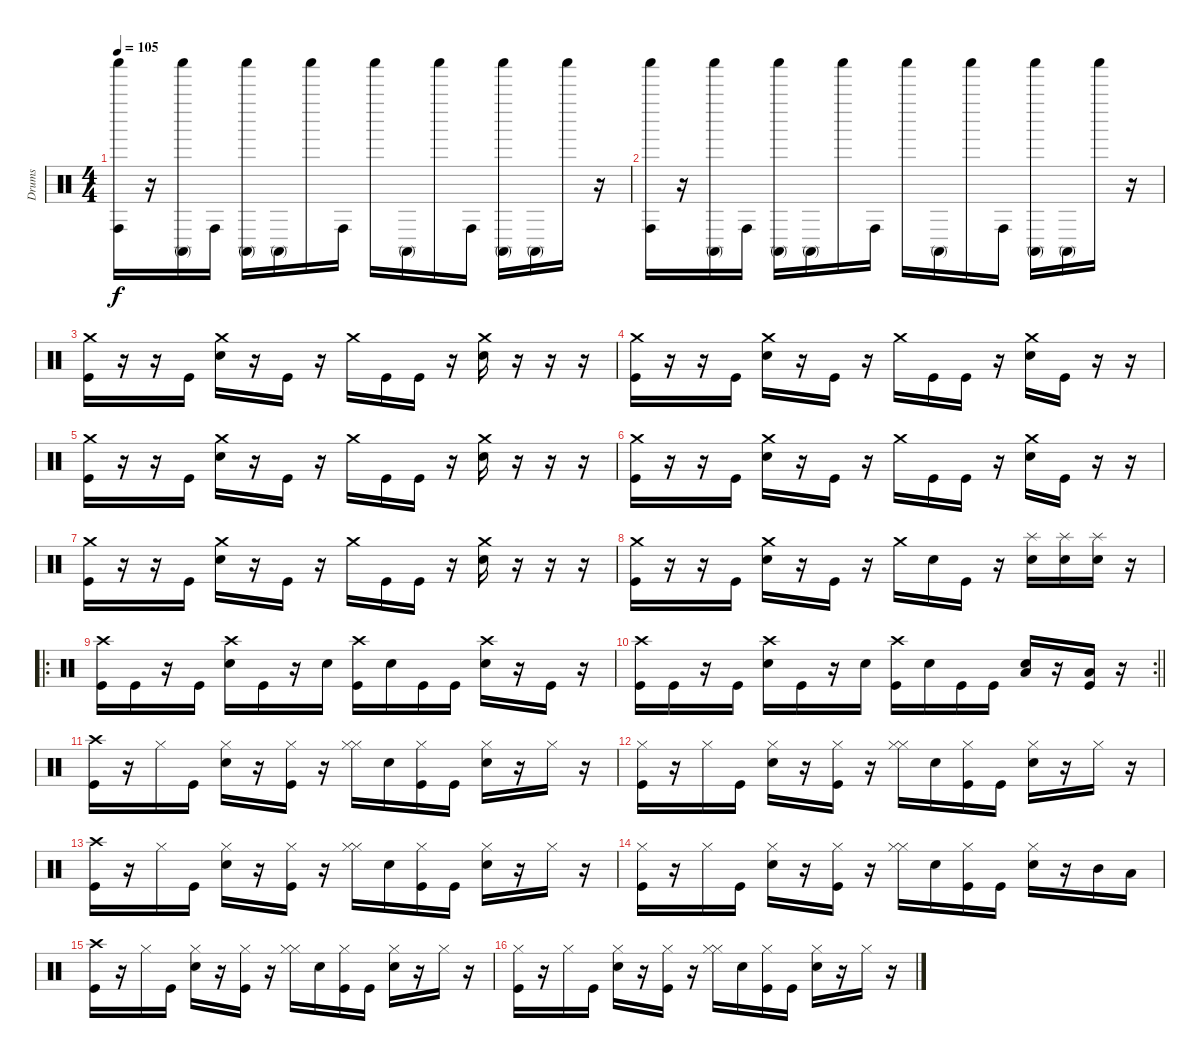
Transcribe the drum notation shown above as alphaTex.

\track ("Drums" "Drums") {instrument percussion}
\staff {score}
\articulation defaults
\ts (4 4)
\tempo 105
\clef neutral
\ks c
("Shaker (hit)" "Conga high (hit)").16{dy f volume 16} r.16 ("Shaker (hit)" "Conga high (mute)").16 "Conga high (hit)".16 ("Shaker (hit)" "Conga high (mute)").16 "Conga high (mute)".16 "Shaker (hit)".16 "Conga high (hit)".16 "Shaker (hit)".16 "Conga high (mute)".16 "Shaker (hit)".16 "Conga high (hit)".16 ("Shaker (hit)" "Conga high (mute)").16 "Conga high (mute)".16 "Shaker (hit)".16 r.16 |
("Shaker (hit)" "Conga high (hit)").16{volume 16} r.16 ("Shaker (hit)" "Conga high (mute)").16 "Conga high (hit)".16 ("Shaker (hit)" "Conga high (mute)").16 "Conga high (mute)".16 "Shaker (hit)".16 "Conga high (hit)".16 "Shaker (hit)".16 "Conga high (mute)".16 "Shaker (hit)".16 "Conga high (hit)".16 ("Shaker (hit)" "Conga high (mute)").16 "Conga high (mute)".16 "Shaker (hit)".16 r.16 |
("Crash medium (hit)" "Kick (hit)").16{volume 13} r.16 r.16 "Kick (hit)".16 ("Crash medium (hit)" "Electric Snare (hit)").16 r.16 "Kick (hit)".16 r.16 "Crash medium (hit)".16 "Kick (hit)".16 "Kick (hit)".16 r.16 ("Crash medium (hit)" "Electric Snare (hit)").16 r.16 r.16 r.16 |
("Crash medium (hit)" "Kick (hit)").16 r.16 r.16 "Kick (hit)".16 ("Crash medium (hit)" "Electric Snare (hit)").16 r.16 "Kick (hit)".16 r.16 "Crash medium (hit)".16 "Kick (hit)".16 "Kick (hit)".16 r.16 ("Crash medium (hit)" "Electric Snare (hit)").16 "Kick (hit)".16 r.16 r.16 |
("Crash medium (hit)" "Kick (hit)").16 r.16 r.16 "Kick (hit)".16 ("Crash medium (hit)" "Electric Snare (hit)").16 r.16 "Kick (hit)".16 r.16 "Crash medium (hit)".16 "Kick (hit)".16 "Kick (hit)".16 r.16 ("Crash medium (hit)" "Electric Snare (hit)").16 r.16 r.16 r.16 |
("Crash medium (hit)" "Kick (hit)").16 r.16 r.16 "Kick (hit)".16 ("Crash medium (hit)" "Electric Snare (hit)").16 r.16 "Kick (hit)".16 r.16 "Crash medium (hit)".16 "Kick (hit)".16 "Kick (hit)".16 r.16 ("Crash medium (hit)" "Electric Snare (hit)").16 "Kick (hit)".16 r.16 r.16 |
("Crash medium (hit)" "Kick (hit)").16 r.16 r.16 "Kick (hit)".16 ("Crash medium (hit)" "Electric Snare (hit)").16 r.16 "Kick (hit)".16 r.16 "Crash medium (hit)".16 "Kick (hit)".16 "Kick (hit)".16 r.16 ("Crash medium (hit)" "Electric Snare (hit)").16 r.16 r.16 r.16 |
("Crash medium (hit)" "Kick (hit)").16 r.16 r.16 "Kick (hit)".16 ("Crash medium (hit)" "Electric Snare (hit)").16 r.16 "Kick (hit)".16 r.16 "Crash medium (hit)".16 "Electric Snare (hit)".16 "Kick (hit)".16 r.16 ("Splash (hit)" "Electric Snare (hit)").16 ("Splash (hit)" "Electric Snare (hit)").16 ("Splash (hit)" "Electric Snare (hit)").16 r.16 |
\ro
("Crash high (hit)" "Kick (hit)").16 "Kick (hit)".16 r.16 "Kick (hit)".16 ("Crash high (hit)" "Electric Snare (hit)").16 "Kick (hit)".16 r.16 "Electric Snare (hit)".16 ("Crash high (hit)" "Kick (hit)").16 "Electric Snare (hit)".16 "Kick (hit)".16 "Kick (hit)".16 ("Crash high (hit)" "Electric Snare (hit)").16 r.16 "Kick (hit)".16 r.16 |
\rc 2
\barLineRight lightlight
("Crash high (hit)" "Kick (hit)").16 "Kick (hit)".16 r.16 "Kick (hit)".16 ("Crash high (hit)" "Electric Snare (hit)").16 "Kick (hit)".16 r.16 "Electric Snare (hit)".16 ("Crash high (hit)" "Kick (hit)").16 "Electric Snare (hit)".16 "Kick (hit)".16 "Kick (hit)".16 ("Low Floor Tom (hit)" "Electric Snare (hit)").16 r.16 ("Low Floor Tom (hit)" "Kick (hit)").16 r.16 |
("Crash high (hit)" "Kick (hit)").16 r.16 "Hi-Hat (closed)".16 "Kick (hit)".16 ("Hi-Hat (closed)" "Electric Snare (hit)").16 r.16 ("Hi-Hat (closed)" "Kick (hit)").16 r.16 ("Hi-Hat (closed)" "Hi-Hat (closed)").16 "Electric Snare (hit)".16 ("Hi-Hat (closed)" "Kick (hit)").16 "Kick (hit)".16 ("Hi-Hat (closed)" "Electric Snare (hit)").16 r.16 "Hi-Hat (closed)".16 r.16 |
("Hi-Hat (closed)" "Kick (hit)").16 r.16 "Hi-Hat (closed)".16 "Kick (hit)".16 ("Hi-Hat (closed)" "Electric Snare (hit)").16 r.16 ("Hi-Hat (closed)" "Kick (hit)").16 r.16 ("Hi-Hat (closed)" "Hi-Hat (closed)").16 "Electric Snare (hit)".16 ("Hi-Hat (closed)" "Kick (hit)").16 "Kick (hit)".16 ("Hi-Hat (closed)" "Electric Snare (hit)").16 r.16 "Hi-Hat (closed)".16 r.16 |
("Crash high (hit)" "Kick (hit)").16 r.16 "Hi-Hat (closed)".16 "Kick (hit)".16 ("Hi-Hat (closed)" "Electric Snare (hit)").16 r.16 ("Hi-Hat (closed)" "Kick (hit)").16 r.16 ("Hi-Hat (closed)" "Hi-Hat (closed)").16 "Electric Snare (hit)".16 ("Hi-Hat (closed)" "Kick (hit)").16 "Kick (hit)".16 ("Hi-Hat (closed)" "Electric Snare (hit)").16 r.16 "Hi-Hat (closed)".16 r.16 |
("Hi-Hat (closed)" "Kick (hit)").16 r.16 "Hi-Hat (closed)".16 "Kick (hit)".16 ("Hi-Hat (closed)" "Electric Snare (hit)").16 r.16 ("Hi-Hat (closed)" "Kick (hit)").16 r.16 ("Hi-Hat (closed)" "Hi-Hat (closed)").16 "Electric Snare (hit)".16 ("Hi-Hat (closed)" "Kick (hit)").16 "Kick (hit)".16 ("Hi-Hat (closed)" "Electric Snare (hit)").16 r.16 "Mid Tom (hit)".16 "Low Tom (hit)".16 |
("Crash high (hit)" "Kick (hit)").16 r.16 "Hi-Hat (closed)".16 "Kick (hit)".16 ("Hi-Hat (closed)" "Electric Snare (hit)").16 r.16 ("Hi-Hat (closed)" "Kick (hit)").16 r.16 ("Hi-Hat (closed)" "Hi-Hat (closed)").16 "Electric Snare (hit)".16 ("Hi-Hat (closed)" "Kick (hit)").16 "Kick (hit)".16 ("Hi-Hat (closed)" "Electric Snare (hit)").16 r.16 "Hi-Hat (closed)".16 r.16 |
("Hi-Hat (closed)" "Kick (hit)").16 r.16 "Hi-Hat (closed)".16 "Kick (hit)".16 ("Hi-Hat (closed)" "Electric Snare (hit)").16 r.16 ("Hi-Hat (closed)" "Kick (hit)").16 r.16 ("Hi-Hat (closed)" "Hi-Hat (closed)").16 "Electric Snare (hit)".16 ("Hi-Hat (closed)" "Kick (hit)").16 "Kick (hit)".16 ("Hi-Hat (closed)" "Electric Snare (hit)").16 r.16 "Hi-Hat (closed)".16 r.16
